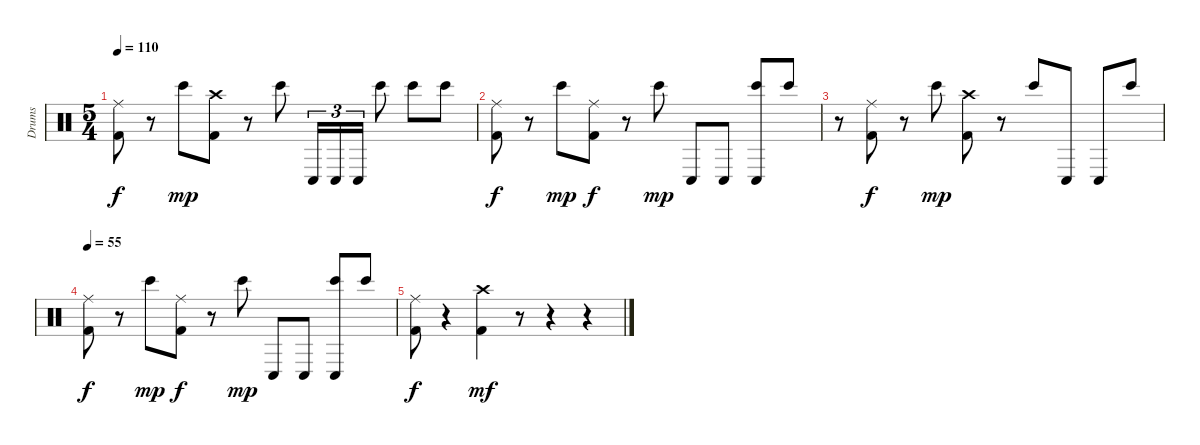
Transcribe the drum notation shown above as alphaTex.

\track ("Drums" "Drums") {instrument percussion}
\staff {score}
\articulation defaults
\ts (5 4)
\tempo 110
\clef neutral
\ks c
("Ride (middle)" "Kick (hit) 2").8{dy f} r.8 "Bongo High (hit)".8{dy mp} ("Crash high (hit)" "Kick (hit) 2").8 r.8 "Bongo High (hit)".8 "Conga low (hit)".16{tu (3 2)} "Conga low (hit)".16{tu (3 2)} "Conga low (hit)".16{tu (3 2)} "Bongo High (hit)".8 "Bongo High (hit)".8 "Bongo High (hit)".8 |
("Ride (middle)" "Kick (hit) 2").8{dy f} r.8 "Bongo High (hit)".8{dy mp} ("Ride (middle)" "Kick (hit) 2").8{dy f} r.8 "Bongo High (hit)".8{dy mp} "Conga low (hit)".8 "Conga low (hit)".8 ("Bongo High (hit)" "Conga low (hit)").8 "Bongo High (hit)".8 |
r.8 ("Ride (middle)" "Kick (hit) 2").8{dy f} r.8 "Bongo High (hit)".8{dy mp} ("Crash high (hit)" "Kick (hit) 2").8 r.8 "Bongo High (hit)".8 "Conga low (hit)".8 "Conga low (hit)".8 "Bongo High (hit)".8 |
\tempo 55
("Ride (middle)" "Kick (hit) 2").8{dy f} r.8 "Bongo High (hit)".8{dy mp} ("Ride (middle)" "Kick (hit) 2").8{dy f} r.8 "Bongo High (hit)".8{dy mp} "Conga low (hit)".8 "Conga low (hit)".8 ("Bongo High (hit)" "Conga low (hit)").8 "Bongo High (hit)".8 |
("Ride (middle)" "Kick (hit) 2").8{dy f} r.4 ("Crash high (hit)" "Kick (hit) 2").4{dy mf} r.8 r.4 r.4
